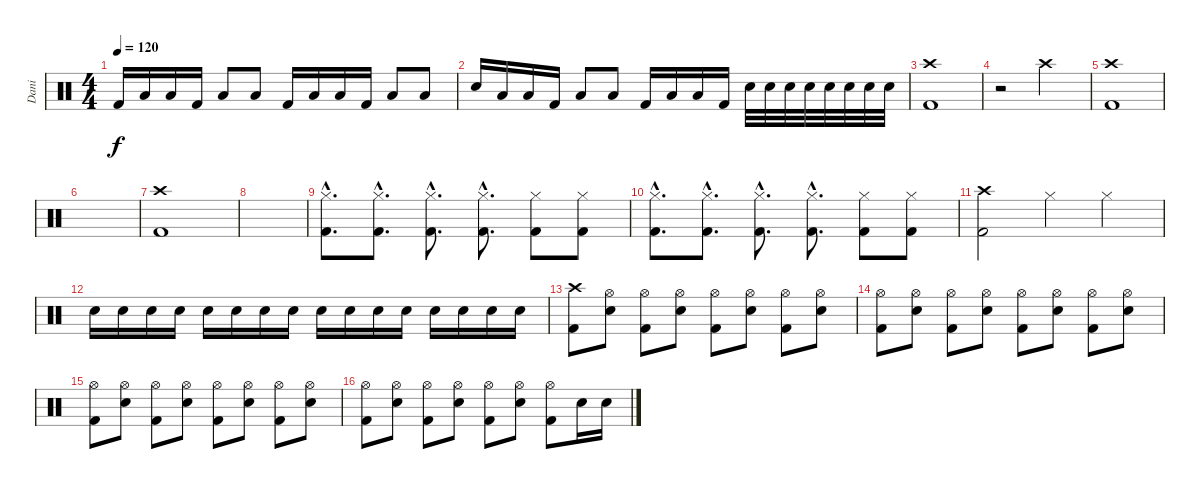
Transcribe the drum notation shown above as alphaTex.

\track ("Dani" "Dani") {instrument percussion}
\staff {score}
\articulation defaults
\ts (4 4)
\tempo 120
\clef neutral
\ks c "Kick (hit) 2".16{dy f} "Low Tom (hit)".16 "Low Tom (hit)".16 "Kick (hit) 2".16 "Low Tom (hit)".8 "Low Tom (hit)".8 "Kick (hit) 2".16 "Low Tom (hit)".16 "Low Tom (hit)".16 "Kick (hit) 2".16 "Low Tom (hit)".8 "Low Tom (hit)".8
|
"Snare (hit) 2".16 "Low Tom (hit)".16 "Low Tom (hit)".16 "Kick (hit) 2".16 "Low Tom (hit)".8 "Low Tom (hit)".8 "Kick (hit) 2".16 "Low Tom (hit)".16 "Low Tom (hit)".16 "Kick (hit) 2".16 "Snare (hit) 2".32 "Snare (hit) 2".32 "Snare (hit) 2".32 "Snare (hit) 2".32 "Snare (hit) 2".32 "Snare (hit) 2".32 "Snare (hit) 2".32 "Snare (hit) 2".32 |
("Crash high (hit)" "Kick (hit) 2").1 |
r.2{volume 0} "Crash high (hit)".2{volume 16} |
("Crash high (hit)" "Kick (hit) 2").1{volume 13} |
|
("Crash high (hit)" "Kick (hit) 2").1 |
|
("Hi-Hat (closed)"{hac} "Kick (hit) 2"{hac}).8{d} ("Hi-Hat (closed)"{hac} "Kick (hit) 2"{hac}).8{d} ("Hi-Hat (closed)"{hac} "Kick (hit) 2"{hac}).8{d} ("Hi-Hat (closed)"{hac} "Kick (hit) 2"{hac}).8{d} ("Hi-Hat (closed)" "Kick (hit) 2").8 ("Hi-Hat (closed)" "Kick (hit) 2").8 |
("Hi-Hat (closed)"{hac} "Kick (hit) 2"{hac}).8{d} ("Hi-Hat (closed)"{hac} "Kick (hit) 2"{hac}).8{d} ("Hi-Hat (closed)"{hac} "Kick (hit) 2"{hac}).8{d} ("Hi-Hat (closed)"{hac} "Kick (hit) 2"{hac}).8{d} ("Hi-Hat (closed)" "Kick (hit) 2").8 ("Hi-Hat (closed)" "Kick (hit) 2").8 |
("Crash high (hit)" "Kick (hit) 2").2 "Hi-Hat (closed)".4 "Hi-Hat (closed)".4 |
"Snare (hit) 2".16 "Snare (hit) 2".16 "Snare (hit) 2".16 "Snare (hit) 2".16 "Snare (hit) 2".16 "Snare (hit) 2".16 "Snare (hit) 2".16 "Snare (hit) 2".16 "Snare (hit) 2".16 "Snare (hit) 2".16 "Snare (hit) 2".16 "Snare (hit) 2".16 "Snare (hit) 2".16 "Snare (hit) 2".16 "Snare (hit) 2".16 "Snare (hit) 2".16 |
("Crash high (hit)" "Kick (hit) 2").8 ("Hi-Hat (open)" "Snare (hit) 2").8 ("Hi-Hat (open)" "Kick (hit) 2").8 ("Hi-Hat (open)" "Snare (hit) 2").8 ("Hi-Hat (open)" "Kick (hit) 2").8 ("Hi-Hat (open)" "Snare (hit) 2").8 ("Hi-Hat (open)" "Kick (hit) 2").8 ("Hi-Hat (open)" "Snare (hit) 2").8 |
("Hi-Hat (open)" "Kick (hit) 2").8 ("Hi-Hat (open)" "Snare (hit) 2").8 ("Hi-Hat (open)" "Kick (hit) 2").8 ("Hi-Hat (open)" "Snare (hit) 2").8 ("Hi-Hat (open)" "Kick (hit) 2").8 ("Hi-Hat (open)" "Snare (hit) 2").8 ("Hi-Hat (open)" "Kick (hit) 2").8 ("Hi-Hat (open)" "Snare (hit) 2").8 |
("Hi-Hat (open)" "Kick (hit) 2").8 ("Hi-Hat (open)" "Snare (hit) 2").8 ("Hi-Hat (open)" "Kick (hit) 2").8 ("Hi-Hat (open)" "Snare (hit) 2").8 ("Hi-Hat (open)" "Kick (hit) 2").8 ("Hi-Hat (open)" "Snare (hit) 2").8 ("Hi-Hat (open)" "Kick (hit) 2").8 ("Hi-Hat (open)" "Snare (hit) 2").8 |
("Hi-Hat (open)" "Kick (hit) 2").8 ("Hi-Hat (open)" "Snare (hit) 2").8 ("Hi-Hat (open)" "Kick (hit) 2").8 ("Hi-Hat (open)" "Snare (hit) 2").8 ("Hi-Hat (open)" "Kick (hit) 2").8 ("Hi-Hat (open)" "Snare (hit) 2").8 ("Hi-Hat (open)" "Kick (hit) 2").8 "Snare (hit) 2".16 "Snare (hit) 2".16
